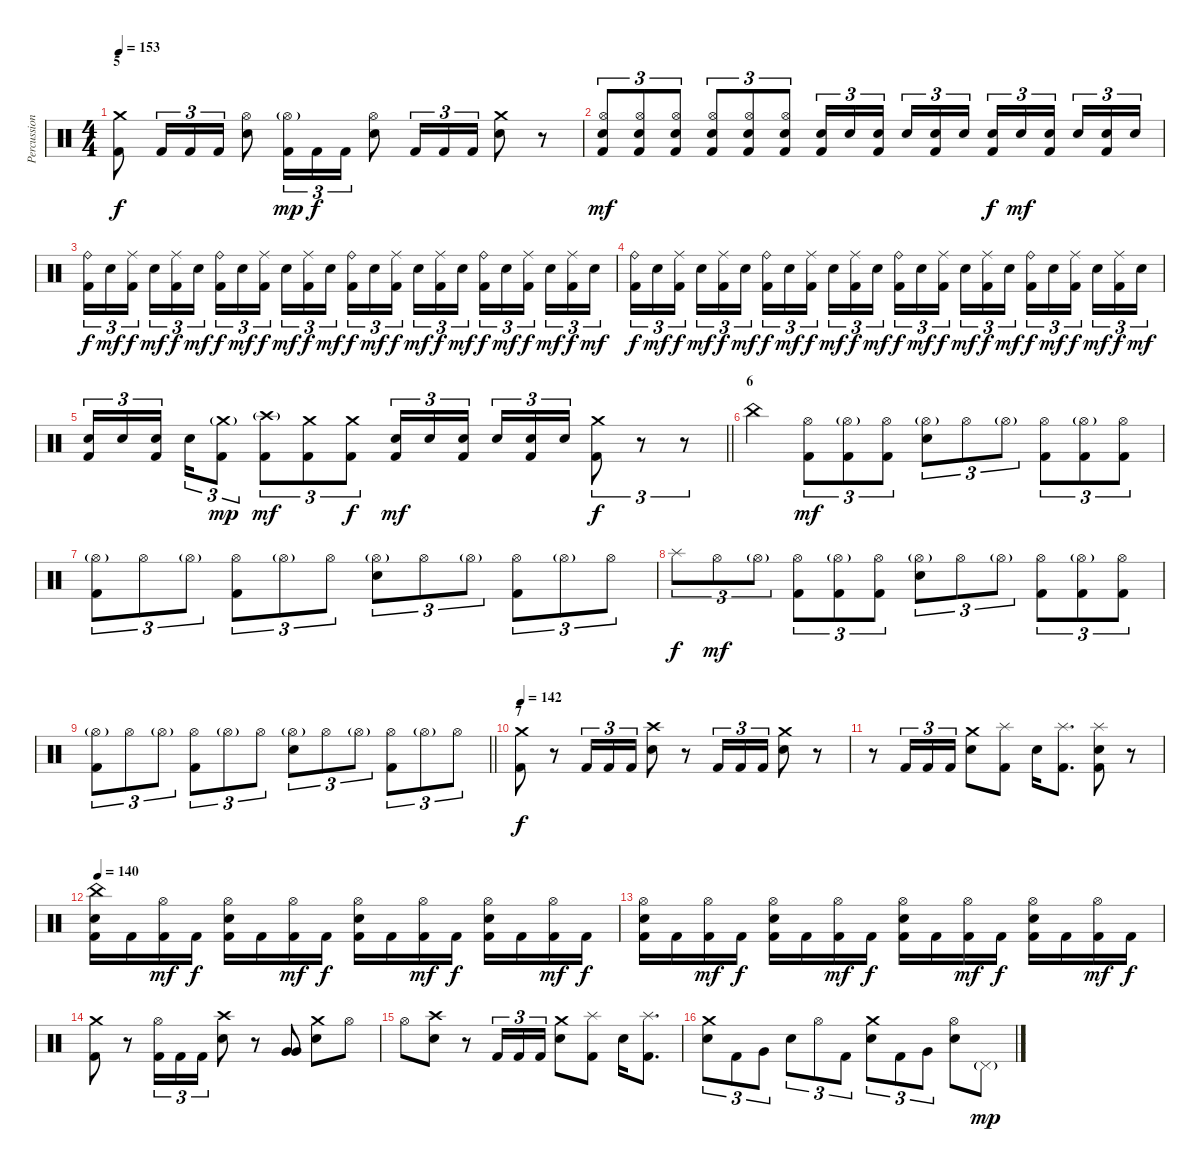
\track ("Percussion" "Percussion") {instrument percussion}
\staff {score}
\articulation defaults
\ts (4 4)
\section ("" "5")
\tempo 153
\clef neutral
\ks c
("Crash medium (hit)" "Kick (hit) 2").8{dy f} "Kick (hit) 2".16{tu (3 2)} "Kick (hit) 2".16{tu (3 2)} "Kick (hit) 2".16{tu (3 2)} ("Hi-Hat (open)" "Snare (hit) 2").8 ("Hi-Hat (open)"{g} "Kick (hit) 2").16{tu (3 2) dy mp} "Kick (hit) 2".16{tu (3 2) dy f} "Kick (hit) 2".16{tu (3 2)} ("Hi-Hat (open)" "Snare (hit) 2").8 "Kick (hit) 2".16{tu (3 2)} "Kick (hit) 2".16{tu (3 2)} "Kick (hit) 2".16{tu (3 2)} ("Crash medium (hit)" "Snare (hit) 2").8 r.8 |
("Hi-Hat (open)" "Snare (hit) 2" "Kick (hit) 2").8{tu (3 2) dy mf} ("Hi-Hat (open)" "Snare (hit) 2" "Kick (hit) 2").8{tu (3 2)} ("Hi-Hat (open)" "Snare (hit) 2" "Kick (hit) 2").8{tu (3 2)} ("Hi-Hat (open)" "Snare (hit) 2" "Kick (hit) 2").8{tu (3 2)} ("Hi-Hat (open)" "Snare (hit) 2" "Kick (hit) 2").8{tu (3 2)} ("Hi-Hat (open)" "Snare (hit) 2" "Kick (hit) 2").8{tu (3 2)} ("Snare (hit) 2" "Kick (hit) 2").16{tu (3 2)} "Snare (hit) 2".16{tu (3 2)} ("Snare (hit) 2" "Kick (hit) 2").16{tu (3 2) beam splitsecondary} "Snare (hit) 2".16{tu (3 2)} ("Snare (hit) 2" "Kick (hit) 2").16{tu (3 2)} "Snare (hit) 2".16{tu (3 2)} ("Snare (hit) 2" "Kick (hit) 2").16{tu (3 2) dy f} "Snare (hit) 2".16{tu (3 2) dy mf} ("Snare (hit) 2" "Kick (hit) 2").16{tu (3 2) beam splitsecondary} "Snare (hit) 2".16{tu (3 2)} ("Snare (hit) 2" "Kick (hit) 2").16{tu (3 2)} "Snare (hit) 2".16{tu (3 2)} |
("Ride (bell)" "Kick (hit) 2").16{tu (3 2) dy f} "Snare (hit) 2".16{tu (3 2) dy mf} ("Ride (middle)" "Kick (hit) 2").16{tu (3 2) dy f beam splitsecondary} "Snare (hit) 2".16{tu (3 2) dy mf} ("Ride (middle)" "Kick (hit) 2").16{tu (3 2) dy f} "Snare (hit) 2".16{tu (3 2) dy mf} ("Ride (bell)" "Kick (hit) 2").16{tu (3 2) dy f} "Snare (hit) 2".16{tu (3 2) dy mf} ("Ride (middle)" "Kick (hit) 2").16{tu (3 2) dy f beam splitsecondary} "Snare (hit) 2".16{tu (3 2) dy mf} ("Ride (middle)" "Kick (hit) 2").16{tu (3 2) dy f} "Snare (hit) 2".16{tu (3 2) dy mf} ("Ride (bell)" "Kick (hit) 2").16{tu (3 2) dy f} "Snare (hit) 2".16{tu (3 2) dy mf} ("Ride (middle)" "Kick (hit) 2").16{tu (3 2) dy f beam splitsecondary} "Snare (hit) 2".16{tu (3 2) dy mf} ("Ride (middle)" "Kick (hit) 2").16{tu (3 2) dy f} "Snare (hit) 2".16{tu (3 2) dy mf} ("Ride (bell)" "Kick (hit) 2").16{tu (3 2) dy f} "Snare (hit) 2".16{tu (3 2) dy mf} ("Ride (middle)" "Kick (hit) 2").16{tu (3 2) dy f beam splitsecondary} "Snare (hit) 2".16{tu (3 2) dy mf} ("Ride (middle)" "Kick (hit) 2").16{tu (3 2) dy f} "Snare (hit) 2".16{tu (3 2) dy mf} |
("Ride (bell)" "Kick (hit) 2").16{tu (3 2) dy f} "Snare (hit) 2".16{tu (3 2) dy mf} ("Ride (middle)" "Kick (hit) 2").16{tu (3 2) dy f beam splitsecondary} "Snare (hit) 2".16{tu (3 2) dy mf} ("Ride (middle)" "Kick (hit) 2").16{tu (3 2) dy f} "Snare (hit) 2".16{tu (3 2) dy mf} ("Ride (bell)" "Kick (hit) 2").16{tu (3 2) dy f} "Snare (hit) 2".16{tu (3 2) dy mf} ("Ride (middle)" "Kick (hit) 2").16{tu (3 2) dy f beam splitsecondary} "Snare (hit) 2".16{tu (3 2) dy mf} ("Ride (middle)" "Kick (hit) 2").16{tu (3 2) dy f} "Snare (hit) 2".16{tu (3 2) dy mf} ("Ride (bell)" "Kick (hit) 2").16{tu (3 2) dy f} "Snare (hit) 2".16{tu (3 2) dy mf} ("Ride (middle)" "Kick (hit) 2").16{tu (3 2) dy f beam splitsecondary} "Snare (hit) 2".16{tu (3 2) dy mf} ("Ride (middle)" "Kick (hit) 2").16{tu (3 2) dy f} "Snare (hit) 2".16{tu (3 2) dy mf} ("Ride (bell)" "Kick (hit) 2").16{tu (3 2) dy f} "Snare (hit) 2".16{tu (3 2) dy mf} ("Ride (middle)" "Kick (hit) 2").16{tu (3 2) dy f beam splitsecondary} "Snare (hit) 2".16{tu (3 2) dy mf} ("Ride (middle)" "Kick (hit) 2").16{tu (3 2) dy f} "Snare (hit) 2".16{tu (3 2) dy mf} |
\barLineRight lightlight
("Snare (hit) 2" "Kick (hit) 2").16{tu (3 2)} "Snare (hit) 2".16{tu (3 2)} ("Snare (hit) 2" "Kick (hit) 2").16{tu (3 2) beam splitsecondary} "Snare (hit) 2".16{tu (3 2)} ("Crash medium (hit)"{g} "Kick (hit) 2").8{tu (3 2) dy mp} ("Crash high (hit)"{g} "Kick (hit) 2").8{tu (3 2) dy mf} ("Crash medium (hit)" "Kick (hit) 2").8{tu (3 2)} ("Crash medium (hit)" "Kick (hit) 2").8{tu (3 2) dy f} ("Snare (hit) 2" "Kick (hit) 2").16{tu (3 2) dy mf} "Snare (hit) 2".16{tu (3 2)} ("Snare (hit) 2" "Kick (hit) 2").16{tu (3 2) beam splitsecondary} "Snare (hit) 2".16{tu (3 2)} ("Snare (hit) 2" "Kick (hit) 2").16{tu (3 2)} "Snare (hit) 2".16{tu (3 2)} ("Crash medium (hit)" "Kick (hit) 2").8{tu (3 2) dy f} r.8{tu (3 2)} r.8{tu (3 2)} |
\section ("" "6")
"China (hit)".4 ("Hi-Hat (open)" "Kick (hit) 2").8{tu (3 2) dy mf} ("Hi-Hat (open)"{g} "Kick (hit) 2").8{tu (3 2)} ("Hi-Hat (open)" "Kick (hit) 2").8{tu (3 2)} ("Hi-Hat (open)"{g} "Snare (hit) 2").8{tu (3 2)} "Hi-Hat (open)".8{tu (3 2)} "Hi-Hat (open)"{g}.8{tu (3 2)} ("Hi-Hat (open)" "Kick (hit) 2").8{tu (3 2)} ("Hi-Hat (open)"{g} "Kick (hit) 2").8{tu (3 2)} ("Hi-Hat (open)" "Kick (hit) 2").8{tu (3 2)} |
("Hi-Hat (open)"{g} "Kick (hit) 2").8{tu (3 2)} "Hi-Hat (open)".8{tu (3 2)} "Hi-Hat (open)"{g}.8{tu (3 2)} ("Hi-Hat (open)" "Kick (hit) 2").8{tu (3 2)} "Hi-Hat (open)"{g}.8{tu (3 2)} "Hi-Hat (open)".8{tu (3 2)} ("Hi-Hat (open)"{g} "Snare (hit) 2").8{tu (3 2)} "Hi-Hat (open)".8{tu (3 2)} "Hi-Hat (open)"{g}.8{tu (3 2)} ("Hi-Hat (open)" "Kick (hit) 2").8{tu (3 2)} "Hi-Hat (open)"{g}.8{tu (3 2)} "Hi-Hat (open)".8{tu (3 2)} |
"Splash (hit)".8{tu (3 2) dy f} "Hi-Hat (open)".8{tu (3 2) dy mf} "Hi-Hat (open)"{g}.8{tu (3 2)} ("Hi-Hat (open)" "Kick (hit) 2").8{tu (3 2)} ("Hi-Hat (open)"{g} "Kick (hit) 2").8{tu (3 2)} ("Hi-Hat (open)" "Kick (hit) 2").8{tu (3 2)} ("Hi-Hat (open)"{g} "Snare (hit) 2").8{tu (3 2)} "Hi-Hat (open)".8{tu (3 2)} "Hi-Hat (open)"{g}.8{tu (3 2)} ("Hi-Hat (open)" "Kick (hit) 2").8{tu (3 2)} ("Hi-Hat (open)"{g} "Kick (hit) 2").8{tu (3 2)} ("Hi-Hat (open)" "Kick (hit) 2").8{tu (3 2)} |
\barLineRight lightlight
("Hi-Hat (open)"{g} "Kick (hit) 2").8{tu (3 2)} "Hi-Hat (open)".8{tu (3 2)} "Hi-Hat (open)"{g}.8{tu (3 2)} ("Hi-Hat (open)" "Kick (hit) 2").8{tu (3 2)} "Hi-Hat (open)"{g}.8{tu (3 2)} "Hi-Hat (open)".8{tu (3 2)} ("Hi-Hat (open)"{g} "Snare (hit) 2").8{tu (3 2)} "Hi-Hat (open)".8{tu (3 2)} "Hi-Hat (open)"{g}.8{tu (3 2)} ("Hi-Hat (open)" "Kick (hit) 2").8{tu (3 2)} "Hi-Hat (open)"{g}.8{tu (3 2)} "Hi-Hat (open)".8{tu (3 2)} |
\section ("" "7")
\tempo 142
("Crash medium (hit)" "Kick (hit) 2").8{dy f} r.8 "Kick (hit) 2".16{tu (3 2)} "Kick (hit) 2".16{tu (3 2)} "Kick (hit) 2".16{tu (3 2)} ("Crash high (hit)" "Snare (hit) 2").8 r.8 "Kick (hit) 2".16{tu (3 2)} "Kick (hit) 2".16{tu (3 2)} "Kick (hit) 2".16{tu (3 2)} ("Crash medium (hit)" "Snare (hit) 2").8 r.8 |
r.8 "Kick (hit) 2".16{tu (3 2)} "Kick (hit) 2".16{tu (3 2)} "Kick (hit) 2".16{tu (3 2)} ("Crash medium (hit)" "Snare (hit) 2").8 ("Splash (hit)" "Kick (hit) 2").8 "Snare (hit) 2".16 ("Splash (hit)" "Kick (hit) 2").8{d} ("Splash (hit)" "Snare (hit) 2" "Kick (hit) 2").8 r.8 |
\tempo 140
("China (hit)" "Snare (hit) 2" "Kick (hit) 2").16 "Kick (hit) 2".16 ("Hi-Hat (open)" "Kick (hit) 2").16{dy mf} "Kick (hit) 2".16{dy f} ("Hi-Hat (open)" "Snare (hit) 2" "Kick (hit) 2").16 "Kick (hit) 2".16 ("Hi-Hat (open)" "Kick (hit) 2").16{dy mf} "Kick (hit) 2".16{dy f} ("Hi-Hat (open)" "Snare (hit) 2" "Kick (hit) 2").16 "Kick (hit) 2".16 ("Hi-Hat (open)" "Kick (hit) 2").16{dy mf} "Kick (hit) 2".16{dy f} ("Hi-Hat (open)" "Snare (hit) 2" "Kick (hit) 2").16 "Kick (hit) 2".16 ("Hi-Hat (open)" "Kick (hit) 2").16{dy mf} "Kick (hit) 2".16{dy f} |
("Hi-Hat (open)" "Snare (hit) 2" "Kick (hit) 2").16 "Kick (hit) 2".16 ("Hi-Hat (open)" "Kick (hit) 2").16{dy mf} "Kick (hit) 2".16{dy f} ("Hi-Hat (open)" "Snare (hit) 2" "Kick (hit) 2").16 "Kick (hit) 2".16 ("Hi-Hat (open)" "Kick (hit) 2").16{dy mf} "Kick (hit) 2".16{dy f} ("Hi-Hat (open)" "Snare (hit) 2" "Kick (hit) 2").16 "Kick (hit) 2".16 ("Hi-Hat (open)" "Kick (hit) 2").16{dy mf} "Kick (hit) 2".16{dy f} ("Hi-Hat (open)" "Snare (hit) 2" "Kick (hit) 2").16 "Kick (hit) 2".16 ("Hi-Hat (open)" "Kick (hit) 2").16{dy mf} "Kick (hit) 2".16{dy f} |
("Crash medium (hit)" "Kick (hit) 2").8 r.8 ("Hi-Hat (open)" "Kick (hit) 2").16{tu (3 2)} "Kick (hit) 2".16{tu (3 2)} "Kick (hit) 2".16{tu (3 2)} ("Crash high (hit)" "Snare (hit) 2").8 r.8 ("Very Low Tom (hit)" "Very Low Tom (hit)").8{bu 60} ("Crash medium (hit)" "Snare (hit) 2").8 "Hi-Hat (open)".8 |
"Hi-Hat (open)".8 ("Crash high (hit)" "Snare (hit) 2").8 r.8 "Kick (hit) 2".16{tu (3 2)} "Kick (hit) 2".16{tu (3 2)} "Kick (hit) 2".16{tu (3 2)} ("Crash medium (hit)" "Snare (hit) 2").8 ("Splash (hit)" "Kick (hit) 2").8 "Snare (hit) 2".16 ("Splash (hit)" "Kick (hit) 2").8{d} |
("Crash medium (hit)" "Snare (hit) 2").8{tu (3 2)} "Kick (hit) 2".8{tu (3 2)} "Very Low Tom (hit)".8{tu (3 2)} "Snare (hit) 2".8{tu (3 2)} "Hi-Hat (open)".8{tu (3 2)} "Kick (hit) 2".8{tu (3 2)} ("Crash medium (hit)" "Snare (hit) 2").8{tu (3 2)} "Kick (hit) 2".8{tu (3 2)} "Very Low Tom (hit)".8{tu (3 2)} ("Hi-Hat (open)" "Snare (hit) 2").8 "Pedal Hi-Hat (hit)"{g}.8{dy mp}
